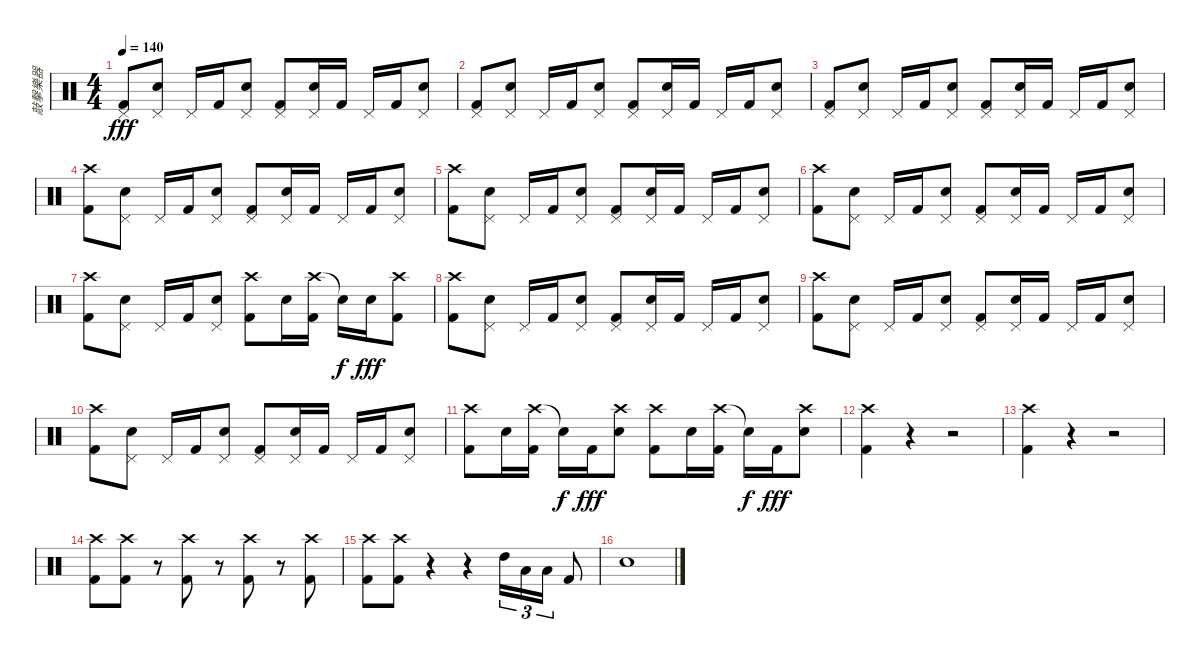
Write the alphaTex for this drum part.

\track ("敲擊樂器" "敲擊樂器") {instrument percussion}
\staff {score}
\articulation defaults
\ts (4 4)
\tempo 140
\clef neutral
\ks c
("Pedal Hi-Hat (hit)" "Kick (hit) 2").8{dy fff} ("Pedal Hi-Hat (hit)" "Snare (hit) 2").8 "Pedal Hi-Hat (hit)".16 "Kick (hit) 2".16 ("Pedal Hi-Hat (hit)" "Snare (hit) 2").8 ("Pedal Hi-Hat (hit)" "Kick (hit) 2").8 ("Pedal Hi-Hat (hit)" "Snare (hit) 2").16 "Kick (hit) 2".16 "Pedal Hi-Hat (hit)".16 "Kick (hit) 2".16 ("Pedal Hi-Hat (hit)" "Snare (hit) 2").8 |
("Pedal Hi-Hat (hit)" "Kick (hit) 2").8 ("Pedal Hi-Hat (hit)" "Snare (hit) 2").8 "Pedal Hi-Hat (hit)".16 "Kick (hit) 2".16 ("Pedal Hi-Hat (hit)" "Snare (hit) 2").8 ("Pedal Hi-Hat (hit)" "Kick (hit) 2").8 ("Pedal Hi-Hat (hit)" "Snare (hit) 2").16 "Kick (hit) 2".16 "Pedal Hi-Hat (hit)".16 "Kick (hit) 2".16 ("Pedal Hi-Hat (hit)" "Snare (hit) 2").8 |
("Pedal Hi-Hat (hit)" "Kick (hit) 2").8 ("Pedal Hi-Hat (hit)" "Snare (hit) 2").8 "Pedal Hi-Hat (hit)".16 "Kick (hit) 2".16 ("Pedal Hi-Hat (hit)" "Snare (hit) 2").8 ("Pedal Hi-Hat (hit)" "Kick (hit) 2").8 ("Pedal Hi-Hat (hit)" "Snare (hit) 2").16 "Kick (hit) 2".16 "Pedal Hi-Hat (hit)".16 "Kick (hit) 2".16 ("Pedal Hi-Hat (hit)" "Snare (hit) 2").8 |
("Crash high (hit)" "Kick (hit) 2").8 ("Pedal Hi-Hat (hit)" "Snare (hit) 2").8 "Pedal Hi-Hat (hit)".16 "Kick (hit) 2".16 ("Pedal Hi-Hat (hit)" "Snare (hit) 2").8 ("Pedal Hi-Hat (hit)" "Kick (hit) 2").8 ("Pedal Hi-Hat (hit)" "Snare (hit) 2").16 "Kick (hit) 2".16 "Pedal Hi-Hat (hit)".16 "Kick (hit) 2".16 ("Pedal Hi-Hat (hit)" "Snare (hit) 2").8 |
("Crash high (hit)" "Kick (hit) 2").8 ("Pedal Hi-Hat (hit)" "Snare (hit) 2").8 "Pedal Hi-Hat (hit)".16 "Kick (hit) 2".16 ("Pedal Hi-Hat (hit)" "Snare (hit) 2").8 ("Pedal Hi-Hat (hit)" "Kick (hit) 2").8 ("Pedal Hi-Hat (hit)" "Snare (hit) 2").16 "Kick (hit) 2".16 "Pedal Hi-Hat (hit)".16 "Kick (hit) 2".16 ("Pedal Hi-Hat (hit)" "Snare (hit) 2").8 |
("Crash high (hit)" "Kick (hit) 2").8 ("Pedal Hi-Hat (hit)" "Snare (hit) 2").8 "Pedal Hi-Hat (hit)".16 "Kick (hit) 2".16 ("Pedal Hi-Hat (hit)" "Snare (hit) 2").8 ("Pedal Hi-Hat (hit)" "Kick (hit) 2").8 ("Pedal Hi-Hat (hit)" "Snare (hit) 2").16 "Kick (hit) 2".16 "Pedal Hi-Hat (hit)".16 "Kick (hit) 2".16 ("Pedal Hi-Hat (hit)" "Snare (hit) 2").8 |
("Crash high (hit)" "Kick (hit) 2").8 ("Pedal Hi-Hat (hit)" "Snare (hit) 2").8 "Pedal Hi-Hat (hit)".16 "Kick (hit) 2".16 ("Pedal Hi-Hat (hit)" "Snare (hit) 2").8 ("Crash high (hit)" "Kick (hit) 2").8 "Snare (hit) 2".16 ("Crash high (hit)" "Kick (hit) 2").16 "Snare (hit)"{t}.16{dy f} "Snare (hit) 2".16{dy fff} ("Crash high (hit)" "Kick (hit) 2").8 |
("Crash high (hit)" "Kick (hit) 2").8 ("Pedal Hi-Hat (hit)" "Snare (hit) 2").8 "Pedal Hi-Hat (hit)".16 "Kick (hit) 2".16 ("Pedal Hi-Hat (hit)" "Snare (hit) 2").8 ("Pedal Hi-Hat (hit)" "Kick (hit) 2").8 ("Pedal Hi-Hat (hit)" "Snare (hit) 2").16 "Kick (hit) 2".16 "Pedal Hi-Hat (hit)".16 "Kick (hit) 2".16 ("Pedal Hi-Hat (hit)" "Snare (hit) 2").8 |
("Crash high (hit)" "Kick (hit) 2").8 ("Pedal Hi-Hat (hit)" "Snare (hit) 2").8 "Pedal Hi-Hat (hit)".16 "Kick (hit) 2".16 ("Pedal Hi-Hat (hit)" "Snare (hit) 2").8 ("Pedal Hi-Hat (hit)" "Kick (hit) 2").8 ("Pedal Hi-Hat (hit)" "Snare (hit) 2").16 "Kick (hit) 2".16 "Pedal Hi-Hat (hit)".16 "Kick (hit) 2".16 ("Pedal Hi-Hat (hit)" "Snare (hit) 2").8 |
("Crash high (hit)" "Kick (hit) 2").8 ("Pedal Hi-Hat (hit)" "Snare (hit) 2").8 "Pedal Hi-Hat (hit)".16 "Kick (hit) 2".16 ("Pedal Hi-Hat (hit)" "Snare (hit) 2").8 ("Pedal Hi-Hat (hit)" "Kick (hit) 2").8 ("Pedal Hi-Hat (hit)" "Snare (hit) 2").16 "Kick (hit) 2".16 "Pedal Hi-Hat (hit)".16 "Kick (hit) 2".16 ("Pedal Hi-Hat (hit)" "Snare (hit) 2").8 |
("Crash high (hit)" "Kick (hit) 2").8 "Snare (hit) 2".16 ("Crash high (hit)" "Kick (hit) 2").16 "Snare (hit)"{t}.16{dy f} "Kick (hit) 2".16{dy fff} ("Crash high (hit)" "Snare (hit) 2").8 ("Crash high (hit)" "Kick (hit) 2").8 "Snare (hit) 2".16 ("Crash high (hit)" "Kick (hit) 2").16 "Snare (hit)"{t}.16{dy f} "Kick (hit) 2".16{dy fff} ("Crash high (hit)" "Snare (hit) 2").8 |
("Crash high (hit)" "Kick (hit) 2").4 r.4 r.2 |
("Crash high (hit)" "Kick (hit) 2").4 r.4 r.2 |
("Crash high (hit)" "Kick (hit) 2").8 ("Crash high (hit)" "Kick (hit) 2").8 r.8 ("Crash high (hit)" "Kick (hit) 2").8 r.8 ("Crash high (hit)" "Kick (hit) 2").8 r.8 ("Crash high (hit)" "Kick (hit) 2").8 |
("Crash high (hit)" "Kick (hit) 2").8 ("Crash high (hit)" "Kick (hit) 2").8 r.4 r.4 "High Tom (hit)".16{tu (3 2)} "Low Tom (hit)".16{tu (3 2)} "Low Floor Tom (hit)".16{tu (3 2)} "Kick (hit) 2".8 |
"Snare (hit)"{x}.1
